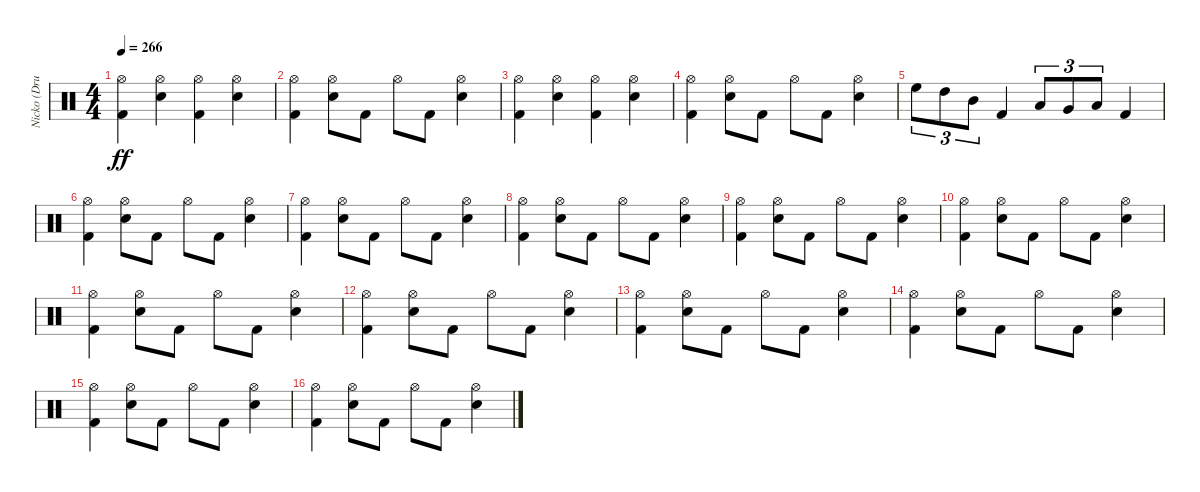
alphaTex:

\track ("Nicko (Drums)" "Nicko (Dru") {instrument percussion}
\staff {score}
\articulation defaults
\ts (4 4)
\tempo 266
\clef neutral
\ks c
("Kick (hit) 2" "Hi-Hat (open)").4{dy ff} ("Snare (hit) 2" "Hi-Hat (open)").4 ("Kick (hit) 2" "Hi-Hat (open)").4 ("Snare (hit) 2" "Hi-Hat (open)").4 |
("Kick (hit) 2" "Hi-Hat (open)").4 ("Snare (hit) 2" "Hi-Hat (open)").8 "Kick (hit) 2".8 "Hi-Hat (open)".8 "Kick (hit) 2".8 ("Snare (hit) 2" "Hi-Hat (open)").4 |
("Kick (hit) 2" "Hi-Hat (open)").4 ("Snare (hit) 2" "Hi-Hat (open)").4 ("Kick (hit) 2" "Hi-Hat (open)").4 ("Snare (hit) 2" "Hi-Hat (open)").4 |
("Kick (hit) 2" "Hi-Hat (open)").4 ("Snare (hit) 2" "Hi-Hat (open)").8 "Kick (hit) 2".8 "Hi-Hat (open)".8 "Kick (hit) 2".8 ("Snare (hit) 2" "Hi-Hat (open)").4 |
"High Floor Tom (hit)".8{tu (3 2)} "High Tom (hit)".8{tu (3 2)} "Mid Tom (hit)".8{tu (3 2)} "Kick (hit) 2".4 "Low Tom (hit)".8{tu (3 2)} "Very Low Tom (hit)".8{tu (3 2)} "Low Floor Tom (hit)".8{tu (3 2)} "Kick (hit) 2".4 |
("Kick (hit) 2" "Hi-Hat (open)").4 ("Snare (hit) 2" "Hi-Hat (open)").8 "Kick (hit) 2".8 "Hi-Hat (open)".8 "Kick (hit) 2".8 ("Snare (hit) 2" "Hi-Hat (open)").4 |
("Kick (hit) 2" "Hi-Hat (open)").4 ("Snare (hit) 2" "Hi-Hat (open)").8 "Kick (hit) 2".8 "Hi-Hat (open)".8 "Kick (hit) 2".8 ("Snare (hit) 2" "Hi-Hat (open)").4 |
("Kick (hit) 2" "Hi-Hat (open)").4 ("Snare (hit) 2" "Hi-Hat (open)").8 "Kick (hit) 2".8 "Hi-Hat (open)".8 "Kick (hit) 2".8 ("Snare (hit) 2" "Hi-Hat (open)").4 |
("Kick (hit) 2" "Hi-Hat (open)").4 ("Snare (hit) 2" "Hi-Hat (open)").8 "Kick (hit) 2".8 "Hi-Hat (open)".8 "Kick (hit) 2".8 ("Snare (hit) 2" "Hi-Hat (open)").4 |
("Kick (hit) 2" "Hi-Hat (open)").4 ("Snare (hit) 2" "Hi-Hat (open)").8 "Kick (hit) 2".8 "Hi-Hat (open)".8 "Kick (hit) 2".8 ("Snare (hit) 2" "Hi-Hat (open)").4 |
("Kick (hit) 2" "Hi-Hat (open)").4 ("Snare (hit) 2" "Hi-Hat (open)").8 "Kick (hit) 2".8 "Hi-Hat (open)".8 "Kick (hit) 2".8 ("Snare (hit) 2" "Hi-Hat (open)").4 |
("Kick (hit) 2" "Hi-Hat (open)").4 ("Snare (hit) 2" "Hi-Hat (open)").8 "Kick (hit) 2".8 "Hi-Hat (open)".8 "Kick (hit) 2".8 ("Snare (hit) 2" "Hi-Hat (open)").4 |
("Kick (hit) 2" "Hi-Hat (open)").4 ("Snare (hit) 2" "Hi-Hat (open)").8 "Kick (hit) 2".8 "Hi-Hat (open)".8 "Kick (hit) 2".8 ("Snare (hit) 2" "Hi-Hat (open)").4 |
("Kick (hit) 2" "Hi-Hat (open)").4 ("Snare (hit) 2" "Hi-Hat (open)").8 "Kick (hit) 2".8 "Hi-Hat (open)".8 "Kick (hit) 2".8 ("Snare (hit) 2" "Hi-Hat (open)").4 |
("Kick (hit) 2" "Hi-Hat (open)").4 ("Snare (hit) 2" "Hi-Hat (open)").8 "Kick (hit) 2".8 "Hi-Hat (open)".8 "Kick (hit) 2".8 ("Snare (hit) 2" "Hi-Hat (open)").4 |
("Kick (hit) 2" "Hi-Hat (open)").4 ("Snare (hit) 2" "Hi-Hat (open)").8 "Kick (hit) 2".8 "Hi-Hat (open)".8 "Kick (hit) 2".8 ("Snare (hit) 2" "Hi-Hat (open)").4
